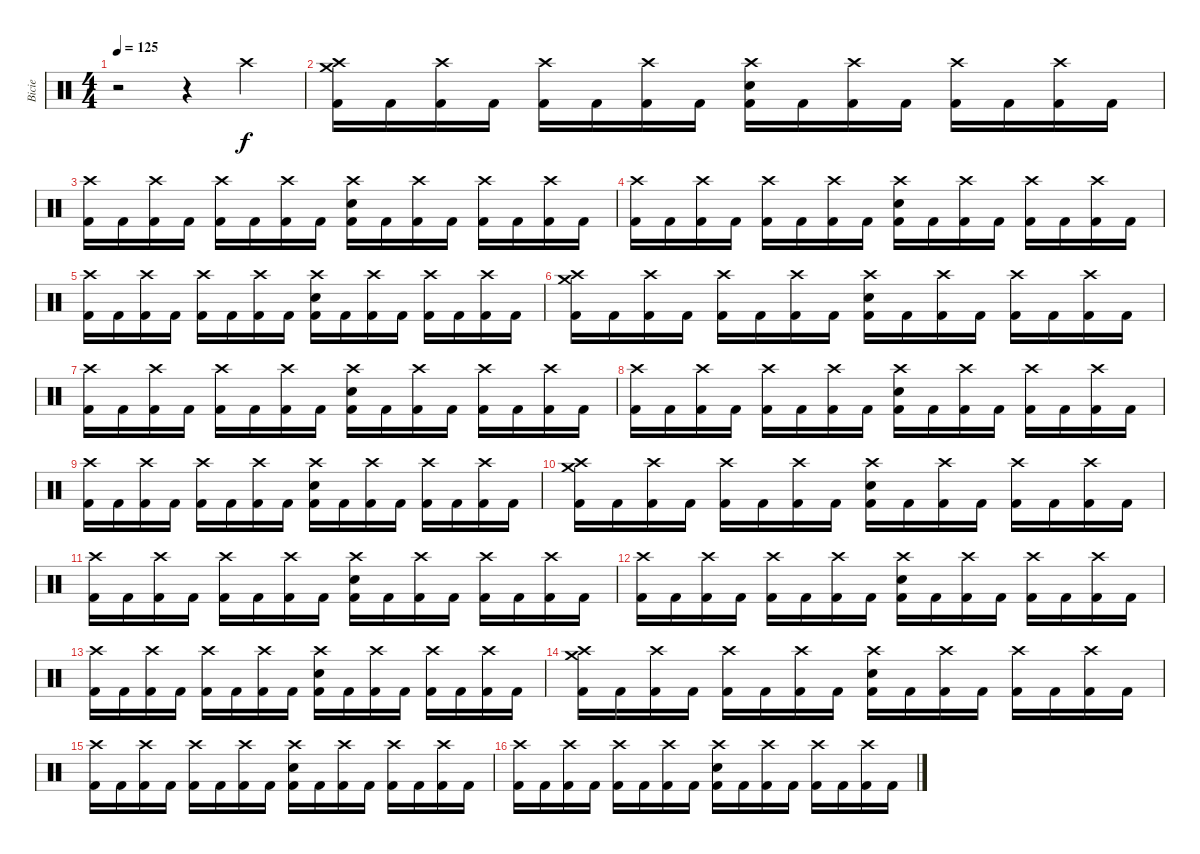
\track ("Bicie" "Bicie") {instrument percussion}
\staff {score}
\articulation defaults
\ts (4 4)
\tempo 125
\clef neutral
\ks c
r.2{dy f} r.4 "Crash high (hit)".4 |
("Crash medium (hit)" "Crash high (hit)" "Kick (hit) 2").16 "Kick (hit) 2".16 ("Crash high (hit)" "Kick (hit) 2").16 "Kick (hit) 2".16 ("Crash high (hit)" "Kick (hit) 2").16 "Kick (hit) 2".16 ("Crash high (hit)" "Kick (hit) 2").16 "Kick (hit) 2".16 ("Crash high (hit)" "Snare (hit) 2" "Kick (hit) 2").16 "Kick (hit) 2".16 ("Crash high (hit)" "Kick (hit) 2").16 "Kick (hit) 2".16 ("Crash high (hit)" "Kick (hit) 2").16 "Kick (hit) 2".16 ("Crash high (hit)" "Kick (hit) 2").16 "Kick (hit) 2".16 |
("Crash high (hit)" "Kick (hit) 2").16 "Kick (hit) 2".16 ("Crash high (hit)" "Kick (hit) 2").16 "Kick (hit) 2".16 ("Crash high (hit)" "Kick (hit) 2").16 "Kick (hit) 2".16 ("Crash high (hit)" "Kick (hit) 2").16 "Kick (hit) 2".16 ("Crash high (hit)" "Snare (hit) 2" "Kick (hit) 2").16 "Kick (hit) 2".16 ("Crash high (hit)" "Kick (hit) 2").16 "Kick (hit) 2".16 ("Crash high (hit)" "Kick (hit) 2").16 "Kick (hit) 2".16 ("Crash high (hit)" "Kick (hit) 2").16 "Kick (hit) 2".16 |
("Crash high (hit)" "Kick (hit) 2").16 "Kick (hit) 2".16 ("Crash high (hit)" "Kick (hit) 2").16 "Kick (hit) 2".16 ("Crash high (hit)" "Kick (hit) 2").16 "Kick (hit) 2".16 ("Crash high (hit)" "Kick (hit) 2").16 "Kick (hit) 2".16 ("Crash high (hit)" "Snare (hit) 2" "Kick (hit) 2").16 "Kick (hit) 2".16 ("Crash high (hit)" "Kick (hit) 2").16 "Kick (hit) 2".16 ("Crash high (hit)" "Kick (hit) 2").16 "Kick (hit) 2".16 ("Crash high (hit)" "Kick (hit) 2").16 "Kick (hit) 2".16 |
("Crash high (hit)" "Kick (hit) 2").16 "Kick (hit) 2".16 ("Crash high (hit)" "Kick (hit) 2").16 "Kick (hit) 2".16 ("Crash high (hit)" "Kick (hit) 2").16 "Kick (hit) 2".16 ("Crash high (hit)" "Kick (hit) 2").16 "Kick (hit) 2".16 ("Crash high (hit)" "Snare (hit) 2" "Kick (hit) 2").16 "Kick (hit) 2".16 ("Crash high (hit)" "Kick (hit) 2").16 "Kick (hit) 2".16 ("Crash high (hit)" "Kick (hit) 2").16 "Kick (hit) 2".16 ("Crash high (hit)" "Kick (hit) 2").16 "Kick (hit) 2".16 |
("Crash medium (hit)" "Crash high (hit)" "Kick (hit) 2").16 "Kick (hit) 2".16 ("Crash high (hit)" "Kick (hit) 2").16 "Kick (hit) 2".16 ("Crash high (hit)" "Kick (hit) 2").16 "Kick (hit) 2".16 ("Crash high (hit)" "Kick (hit) 2").16 "Kick (hit) 2".16 ("Crash high (hit)" "Snare (hit) 2" "Kick (hit) 2").16 "Kick (hit) 2".16 ("Crash high (hit)" "Kick (hit) 2").16 "Kick (hit) 2".16 ("Crash high (hit)" "Kick (hit) 2").16 "Kick (hit) 2".16 ("Crash high (hit)" "Kick (hit) 2").16 "Kick (hit) 2".16 |
("Crash high (hit)" "Kick (hit) 2").16 "Kick (hit) 2".16 ("Crash high (hit)" "Kick (hit) 2").16 "Kick (hit) 2".16 ("Crash high (hit)" "Kick (hit) 2").16 "Kick (hit) 2".16 ("Crash high (hit)" "Kick (hit) 2").16 "Kick (hit) 2".16 ("Crash high (hit)" "Snare (hit) 2" "Kick (hit) 2").16 "Kick (hit) 2".16 ("Crash high (hit)" "Kick (hit) 2").16 "Kick (hit) 2".16 ("Crash high (hit)" "Kick (hit) 2").16 "Kick (hit) 2".16 ("Crash high (hit)" "Kick (hit) 2").16 "Kick (hit) 2".16 |
("Crash high (hit)" "Kick (hit) 2").16 "Kick (hit) 2".16 ("Crash high (hit)" "Kick (hit) 2").16 "Kick (hit) 2".16 ("Crash high (hit)" "Kick (hit) 2").16 "Kick (hit) 2".16 ("Crash high (hit)" "Kick (hit) 2").16 "Kick (hit) 2".16 ("Crash high (hit)" "Snare (hit) 2" "Kick (hit) 2").16 "Kick (hit) 2".16 ("Crash high (hit)" "Kick (hit) 2").16 "Kick (hit) 2".16 ("Crash high (hit)" "Kick (hit) 2").16 "Kick (hit) 2".16 ("Crash high (hit)" "Kick (hit) 2").16 "Kick (hit) 2".16 |
("Crash high (hit)" "Kick (hit) 2").16 "Kick (hit) 2".16 ("Crash high (hit)" "Kick (hit) 2").16 "Kick (hit) 2".16 ("Crash high (hit)" "Kick (hit) 2").16 "Kick (hit) 2".16 ("Crash high (hit)" "Kick (hit) 2").16 "Kick (hit) 2".16 ("Crash high (hit)" "Snare (hit) 2" "Kick (hit) 2").16 "Kick (hit) 2".16 ("Crash high (hit)" "Kick (hit) 2").16 "Kick (hit) 2".16 ("Crash high (hit)" "Kick (hit) 2").16 "Kick (hit) 2".16 ("Crash high (hit)" "Kick (hit) 2").16 "Kick (hit) 2".16 |
("Crash medium (hit)" "Crash high (hit)" "Kick (hit) 2").16 "Kick (hit) 2".16 ("Crash high (hit)" "Kick (hit) 2").16 "Kick (hit) 2".16 ("Crash high (hit)" "Kick (hit) 2").16 "Kick (hit) 2".16 ("Crash high (hit)" "Kick (hit) 2").16 "Kick (hit) 2".16 ("Crash high (hit)" "Snare (hit) 2" "Kick (hit) 2").16 "Kick (hit) 2".16 ("Crash high (hit)" "Kick (hit) 2").16 "Kick (hit) 2".16 ("Crash high (hit)" "Kick (hit) 2").16 "Kick (hit) 2".16 ("Crash high (hit)" "Kick (hit) 2").16 "Kick (hit) 2".16 |
("Crash high (hit)" "Kick (hit) 2").16 "Kick (hit) 2".16 ("Crash high (hit)" "Kick (hit) 2").16 "Kick (hit) 2".16 ("Crash high (hit)" "Kick (hit) 2").16 "Kick (hit) 2".16 ("Crash high (hit)" "Kick (hit) 2").16 "Kick (hit) 2".16 ("Crash high (hit)" "Snare (hit) 2" "Kick (hit) 2").16 "Kick (hit) 2".16 ("Crash high (hit)" "Kick (hit) 2").16 "Kick (hit) 2".16 ("Crash high (hit)" "Kick (hit) 2").16 "Kick (hit) 2".16 ("Crash high (hit)" "Kick (hit) 2").16 "Kick (hit) 2".16 |
("Crash high (hit)" "Kick (hit) 2").16 "Kick (hit) 2".16 ("Crash high (hit)" "Kick (hit) 2").16 "Kick (hit) 2".16 ("Crash high (hit)" "Kick (hit) 2").16 "Kick (hit) 2".16 ("Crash high (hit)" "Kick (hit) 2").16 "Kick (hit) 2".16 ("Crash high (hit)" "Snare (hit) 2" "Kick (hit) 2").16 "Kick (hit) 2".16 ("Crash high (hit)" "Kick (hit) 2").16 "Kick (hit) 2".16 ("Crash high (hit)" "Kick (hit) 2").16 "Kick (hit) 2".16 ("Crash high (hit)" "Kick (hit) 2").16 "Kick (hit) 2".16 |
("Crash high (hit)" "Kick (hit) 2").16 "Kick (hit) 2".16 ("Crash high (hit)" "Kick (hit) 2").16 "Kick (hit) 2".16 ("Crash high (hit)" "Kick (hit) 2").16 "Kick (hit) 2".16 ("Crash high (hit)" "Kick (hit) 2").16 "Kick (hit) 2".16 ("Crash high (hit)" "Snare (hit) 2" "Kick (hit) 2").16 "Kick (hit) 2".16 ("Crash high (hit)" "Kick (hit) 2").16 "Kick (hit) 2".16 ("Crash high (hit)" "Kick (hit) 2").16 "Kick (hit) 2".16 ("Crash high (hit)" "Kick (hit) 2").16 "Kick (hit) 2".16 |
("Crash medium (hit)" "Crash high (hit)" "Kick (hit) 2").16 "Kick (hit) 2".16 ("Crash high (hit)" "Kick (hit) 2").16 "Kick (hit) 2".16 ("Crash high (hit)" "Kick (hit) 2").16 "Kick (hit) 2".16 ("Crash high (hit)" "Kick (hit) 2").16 "Kick (hit) 2".16 ("Crash high (hit)" "Snare (hit) 2" "Kick (hit) 2").16 "Kick (hit) 2".16 ("Crash high (hit)" "Kick (hit) 2").16 "Kick (hit) 2".16 ("Crash high (hit)" "Kick (hit) 2").16 "Kick (hit) 2".16 ("Crash high (hit)" "Kick (hit) 2").16 "Kick (hit) 2".16 |
("Crash high (hit)" "Kick (hit) 2").16 "Kick (hit) 2".16 ("Crash high (hit)" "Kick (hit) 2").16 "Kick (hit) 2".16 ("Crash high (hit)" "Kick (hit) 2").16 "Kick (hit) 2".16 ("Crash high (hit)" "Kick (hit) 2").16 "Kick (hit) 2".16 ("Crash high (hit)" "Snare (hit) 2" "Kick (hit) 2").16 "Kick (hit) 2".16 ("Crash high (hit)" "Kick (hit) 2").16 "Kick (hit) 2".16 ("Crash high (hit)" "Kick (hit) 2").16 "Kick (hit) 2".16 ("Crash high (hit)" "Kick (hit) 2").16 "Kick (hit) 2".16 |
("Crash high (hit)" "Kick (hit) 2").16 "Kick (hit) 2".16 ("Crash high (hit)" "Kick (hit) 2").16 "Kick (hit) 2".16 ("Crash high (hit)" "Kick (hit) 2").16 "Kick (hit) 2".16 ("Crash high (hit)" "Kick (hit) 2").16 "Kick (hit) 2".16 ("Crash high (hit)" "Snare (hit) 2" "Kick (hit) 2").16 "Kick (hit) 2".16 ("Crash high (hit)" "Kick (hit) 2").16 "Kick (hit) 2".16 ("Crash high (hit)" "Kick (hit) 2").16 "Kick (hit) 2".16 ("Crash high (hit)" "Kick (hit) 2").16 "Kick (hit) 2".16
